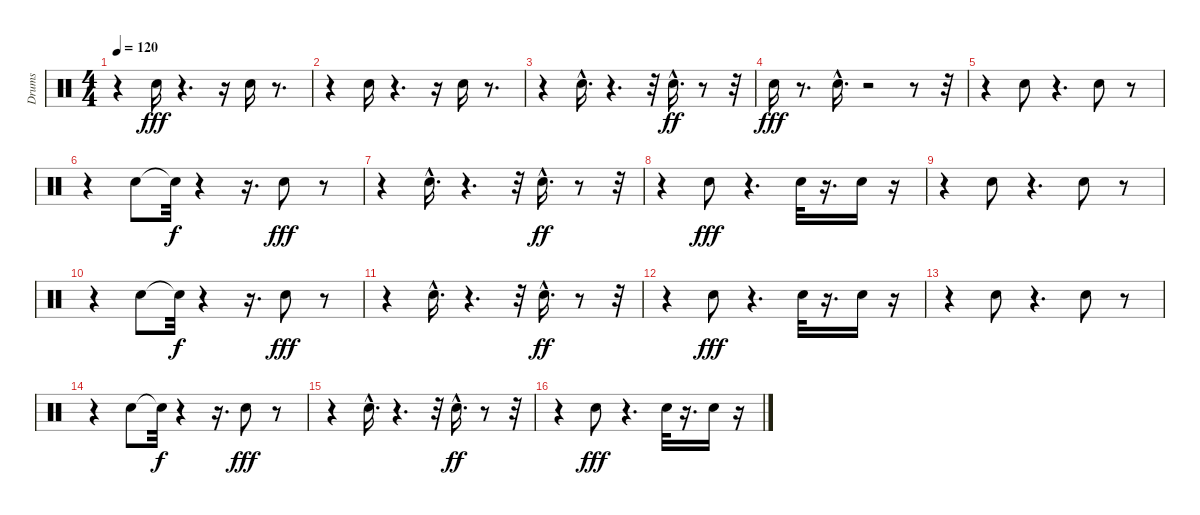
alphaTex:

\track ("Drums" "Drums") {instrument percussion}
\staff {score}
\articulation defaults
\ts (4 4)
\tempo 120
\clef neutral
\ks c
r.4{dy fff} "Electric Snare (hit)".16 r.4{d} r.16 "Electric Snare (hit)".16 r.8{d} |
r.4 "Electric Snare (hit)".16 r.4{d} r.16 "Electric Snare (hit)".16 r.8{d} |
r.4 "Electric Snare (hit)"{hac}.16{d} r.4{d} r.32 "Electric Snare (hit)"{hac}.16{d dy ff} r.8 r.32 |
"Electric Snare (hit)".16{dy fff} r.8{d} "Electric Snare (hit)"{hac}.16{d} r.2 r.8 r.32 |
r.4 "Electric Snare (hit)".8 r.4{d} "Electric Snare (hit)".8 r.8 |
r.4 "Electric Snare (hit)".8 "Snare (hit)"{t}.32{dy f} r.4 r.16{d} "Electric Snare (hit)".8{dy fff} r.8 |
r.4 "Electric Snare (hit)"{hac}.16{d} r.4{d} r.32 "Electric Snare (hit)"{hac}.16{d dy ff} r.8 r.32 |
r.4 "Electric Snare (hit)".8{dy fff} r.4{d} "Electric Snare (hit)".32 r.16{d} "Electric Snare (hit)".16 r.16 |
r.4 "Electric Snare (hit)".8 r.4{d} "Electric Snare (hit)".8 r.8 |
r.4 "Electric Snare (hit)".8 "Snare (hit)"{t}.32{dy f} r.4 r.16{d} "Electric Snare (hit)".8{dy fff} r.8 |
r.4 "Electric Snare (hit)"{hac}.16{d} r.4{d} r.32 "Electric Snare (hit)"{hac}.16{d dy ff} r.8 r.32 |
r.4 "Electric Snare (hit)".8{dy fff} r.4{d} "Electric Snare (hit)".32 r.16{d} "Electric Snare (hit)".16 r.16 |
r.4 "Electric Snare (hit)".8 r.4{d} "Electric Snare (hit)".8 r.8 |
r.4 "Electric Snare (hit)".8 "Snare (hit)"{t}.32{dy f} r.4 r.16{d} "Electric Snare (hit)".8{dy fff} r.8 |
r.4 "Electric Snare (hit)"{hac}.16{d} r.4{d} r.32 "Electric Snare (hit)"{hac}.16{d dy ff} r.8 r.32 |
r.4 "Electric Snare (hit)".8{dy fff} r.4{d} "Electric Snare (hit)".32 r.16{d} "Electric Snare (hit)".16 r.16
